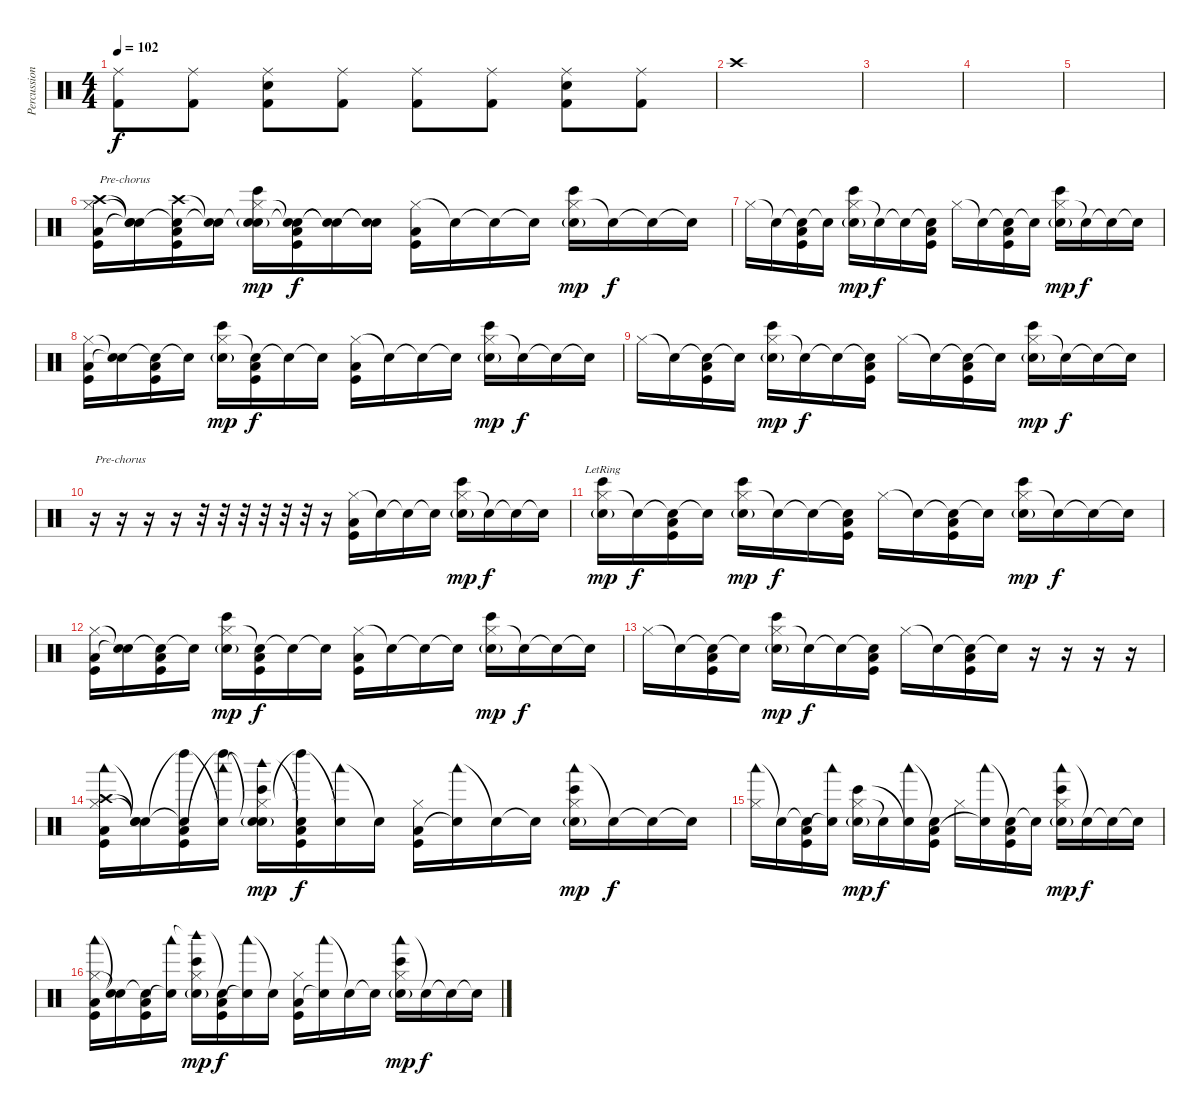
\track ("Percussions" "Percussion") {instrument percussion}
\staff {score}
\articulation defaults
\ts (4 4)
\tempo 102
\clef neutral
\ks c
("Ride (middle)" "Kick (hit) 2").8{dy f} ("Ride (middle)" "Kick (hit) 2").8 ("Electric Snare (hit)" "Ride (middle)" "Kick (hit) 2").8 ("Ride (middle)" "Kick (hit) 2").8 ("Ride (middle)" "Kick (hit) 2").8 ("Ride (middle)" "Kick (hit) 2").8 ("Electric Snare (hit)" "Ride (middle)" "Kick (hit) 2").8 ("Ride (middle)" "Kick (hit) 2").8 |
"Crash high (hit)".1 |
|
|
|
("Crash high (hit)" "Hi-Hat (closed)" "Low Floor Tom (hit)" "Kick (hit)").16{txt "Pre-chorus" volume 12} ("Snare (hit)"{t} "Snare (hit)"{t} "Snare (hit)"{t}).16 ("Crash high (hit)" "Snare (hit)"{t} "Low Floor Tom (hit)" "Kick (hit)").16 ("Snare (hit)"{t} "Snare (hit)"{t}).16 ("Snare (hit)"{t} "Hi-Hat (closed)" "Bongo High (hit)" "Electric Snare (hit)"{g}).16{dy mp} ("Snare (hit)"{t} "Snare (hit)"{t} "Low Floor Tom (hit)" "Kick (hit)").16{dy f} ("Snare (hit)"{t} "Snare (hit)"{t}).16 ("Snare (hit)"{t} "Snare (hit)"{t}).16 ("Hi-Hat (closed)" "Low Floor Tom (hit)" "Kick (hit)").16 "Snare (hit)"{t}.16 "Snare (hit)"{t}.16 "Snare (hit)"{t}.16 ("Hi-Hat (closed)" "Bongo High (hit)" "Electric Snare (hit)"{g}).16{dy mp} "Snare (hit)"{t}.16{dy f} "Snare (hit)"{t}.16 "Snare (hit)"{t}.16 |
"Hi-Hat (closed)".16 "Snare (hit)"{t}.16 ("Snare (hit)"{t} "Low Floor Tom (hit)" "Kick (hit)").16 "Snare (hit)"{t}.16 ("Hi-Hat (closed)" "Bongo High (hit)" "Electric Snare (hit)"{g}).16{dy mp} "Snare (hit)"{t}.16{dy f} "Snare (hit)"{t}.16 ("Snare (hit)"{t} "Low Floor Tom (hit)" "Kick (hit)").16 "Hi-Hat (closed)".16 "Snare (hit)"{t}.16 ("Snare (hit)"{t} "Low Floor Tom (hit)" "Kick (hit)").16 "Snare (hit)"{t}.16 ("Hi-Hat (closed)" "Bongo High (hit)" "Electric Snare (hit)"{g}).16{dy mp} "Snare (hit)"{t}.16{dy f} "Snare (hit)"{t}.16 "Snare (hit)"{t}.16 |
("Hi-Hat (closed)" "Low Floor Tom (hit)" "Kick (hit)").16 ("Snare (hit)"{t} "Snare (hit)"{t}).16 ("Snare (hit)"{t} "Low Floor Tom (hit)" "Kick (hit)").16 "Snare (hit)"{t}.16 ("Hi-Hat (closed)" "Bongo High (hit)" "Electric Snare (hit)"{g}).16{dy mp} ("Snare (hit)"{t} "Low Floor Tom (hit)" "Kick (hit)").16{dy f} "Snare (hit)"{t}.16 "Snare (hit)"{t}.16 ("Hi-Hat (closed)" "Low Floor Tom (hit)" "Kick (hit)").16 "Snare (hit)"{t}.16 "Snare (hit)"{t}.16 "Snare (hit)"{t}.16 ("Hi-Hat (closed)" "Bongo High (hit)" "Electric Snare (hit)"{g}).16{dy mp} "Snare (hit)"{t}.16{dy f} "Snare (hit)"{t}.16 "Snare (hit)"{t}.16 |
"Hi-Hat (closed)".16 "Snare (hit)"{t}.16 ("Snare (hit)"{t} "Low Floor Tom (hit)" "Kick (hit)").16 "Snare (hit)"{t}.16 ("Hi-Hat (closed)" "Bongo High (hit)" "Electric Snare (hit)"{g}).16{dy mp} "Snare (hit)"{t}.16{dy f} "Snare (hit)"{t}.16 ("Snare (hit)"{t} "Low Floor Tom (hit)" "Kick (hit)").16 "Hi-Hat (closed)".16 "Snare (hit)"{t}.16 ("Snare (hit)"{t} "Low Floor Tom (hit)" "Kick (hit)").16 "Snare (hit)"{t}.16 ("Hi-Hat (closed)" "Bongo High (hit)" "Electric Snare (hit)"{g}).16{dy mp} "Snare (hit)"{t}.16{dy f} "Snare (hit)"{t}.16 "Snare (hit)"{t}.16 |
r.16{txt "Pre-chorus" volume 12} r.16 r.16 r.16 r.32 r.32 r.32 r.32 r.32 r.32 r.16 ("Hi-Hat (closed)" "Low Floor Tom (hit)" "Kick (hit)").16 "Snare (hit)"{t}.16 "Snare (hit)"{t}.16 "Snare (hit)"{t}.16 ("Hi-Hat (closed)" "Bongo High (hit)" "Electric Snare (hit)"{g}).16{dy mp} "Snare (hit)"{t}.16{dy f} "Snare (hit)"{t}.16 "Snare (hit)"{t}.16 |
("Hi-Hat (closed)" "Bongo High (hit)" "Electric Snare (hit)"{g lr}).16{dy mp} "Snare (hit)"{t}.16{dy f} ("Snare (hit)"{t} "Low Floor Tom (hit)" "Kick (hit)").16 "Snare (hit)"{t}.16 ("Hi-Hat (closed)" "Bongo High (hit)" "Electric Snare (hit)"{g}).16{dy mp} "Snare (hit)"{t}.16{dy f} "Snare (hit)"{t}.16 ("Snare (hit)"{t} "Low Floor Tom (hit)" "Kick (hit)").16 "Hi-Hat (closed)".16 "Snare (hit)"{t}.16 ("Snare (hit)"{t} "Low Floor Tom (hit)" "Kick (hit)").16 "Snare (hit)"{t}.16 ("Hi-Hat (closed)" "Bongo High (hit)" "Electric Snare (hit)"{g}).16{dy mp} "Snare (hit)"{t}.16{dy f} "Snare (hit)"{t}.16 "Snare (hit)"{t}.16 |
("Hi-Hat (closed)" "Low Floor Tom (hit)" "Kick (hit)").16 ("Snare (hit)"{t} "Snare (hit)"{t}).16 ("Snare (hit)"{t} "Low Floor Tom (hit)" "Kick (hit)").16 "Snare (hit)"{t}.16 ("Hi-Hat (closed)" "Bongo High (hit)" "Electric Snare (hit)"{g}).16{dy mp} ("Snare (hit)"{t} "Low Floor Tom (hit)" "Kick (hit)").16{dy f} "Snare (hit)"{t}.16 "Snare (hit)"{t}.16 ("Hi-Hat (closed)" "Low Floor Tom (hit)" "Kick (hit)").16 "Snare (hit)"{t}.16 "Snare (hit)"{t}.16 "Snare (hit)"{t}.16 ("Hi-Hat (closed)" "Bongo High (hit)" "Electric Snare (hit)"{g}).16{dy mp} "Snare (hit)"{t}.16{dy f} "Snare (hit)"{t}.16 "Snare (hit)"{t}.16 |
"Hi-Hat (closed)".16 "Snare (hit)"{t}.16 ("Snare (hit)"{t} "Low Floor Tom (hit)" "Kick (hit)").16 "Snare (hit)"{t}.16 ("Hi-Hat (closed)" "Bongo High (hit)" "Electric Snare (hit)"{g}).16{dy mp} "Snare (hit)"{t}.16{dy f} "Snare (hit)"{t}.16 ("Snare (hit)"{t} "Low Floor Tom (hit)" "Kick (hit)").16 "Hi-Hat (closed)".16 "Snare (hit)"{t}.16 ("Snare (hit)"{t} "Low Floor Tom (hit)" "Kick (hit)").16 "Snare (hit)"{t}.16 r.16 r.16 r.16 r.16 |
("Woodblock low (hit)" "Hi-Hat (closed)" "Crash high (hit)" "Low Floor Tom (hit)" "Kick (hit)").16 ("Snare (hit)"{t} "Snare (hit)"{t} "Snare (hit)"{t}).16 ("Snare (hit)"{t} "Left Maraca (hit)"{t} "Low Floor Tom (hit)" "Kick (hit)").16 ("Woodblock low (hit)" "Snare (hit)"{t} "Left Maraca (hit)"{t}).16 ("Woodblock high (hit)"{t} "Hi-Hat (closed)" "Snare (hit)"{t} "Bongo High (hit)" "Electric Snare (hit)"{g}).16{dy mp} ("Snare (hit)"{t} "Left Maraca (hit)"{t} "Low Floor Tom (hit)" "Kick (hit)").16{dy f} ("Woodblock low (hit)" "Snare (hit)"{t}).16 "Snare (hit)"{t}.16 ("Hi-Hat (closed)" "Low Floor Tom (hit)" "Kick (hit)").16 ("Woodblock low (hit)" "Snare (hit)"{t}).16 "Snare (hit)"{t}.16 "Snare (hit)"{t}.16 ("Woodblock low (hit)" "Hi-Hat (closed)" "Bongo High (hit)" "Electric Snare (hit)"{g}).16{dy mp} "Snare (hit)"{t}.16{dy f} "Snare (hit)"{t}.16 "Snare (hit)"{t}.16 |
("Woodblock low (hit)" "Hi-Hat (closed)").16 "Snare (hit)"{t}.16 ("Snare (hit)"{t} "Low Floor Tom (hit)" "Kick (hit)").16 ("Woodblock low (hit)" "Snare (hit)"{t}).16 ("Hi-Hat (closed)" "Bongo High (hit)" "Electric Snare (hit)"{g}).16{dy mp} "Snare (hit)"{t}.16{dy f} ("Woodblock low (hit)" "Snare (hit)"{t}).16 ("Snare (hit)"{t} "Low Floor Tom (hit)" "Kick (hit)").16 "Hi-Hat (closed)".16 ("Woodblock low (hit)" "Snare (hit)"{t}).16 ("Snare (hit)"{t} "Low Floor Tom (hit)" "Kick (hit)").16 "Snare (hit)"{t}.16 ("Woodblock low (hit)" "Hi-Hat (closed)" "Bongo High (hit)" "Electric Snare (hit)"{g}).16{dy mp} "Snare (hit)"{t}.16{dy f} "Snare (hit)"{t}.16 "Snare (hit)"{t}.16 |
("Woodblock low (hit)" "Hi-Hat (closed)" "Low Floor Tom (hit)" "Kick (hit)").16 ("Snare (hit)"{t} "Snare (hit)"{t}).16 ("Snare (hit)"{t} "Low Floor Tom (hit)" "Kick (hit)").16 ("Woodblock low (hit)" "Snare (hit)"{t}).16 ("Woodblock high (hit)"{t} "Hi-Hat (closed)" "Bongo High (hit)" "Electric Snare (hit)"{g}).16{dy mp} ("Snare (hit)"{t} "Low Floor Tom (hit)" "Kick (hit)").16{dy f} ("Woodblock low (hit)" "Snare (hit)"{t}).16 "Snare (hit)"{t}.16 ("Hi-Hat (closed)" "Low Floor Tom (hit)" "Kick (hit)").16 ("Woodblock low (hit)" "Snare (hit)"{t}).16 "Snare (hit)"{t}.16 "Snare (hit)"{t}.16 ("Woodblock low (hit)" "Hi-Hat (closed)" "Bongo High (hit)" "Electric Snare (hit)"{g}).16{dy mp} "Snare (hit)"{t}.16{dy f} "Snare (hit)"{t}.16 "Snare (hit)"{t}.16
